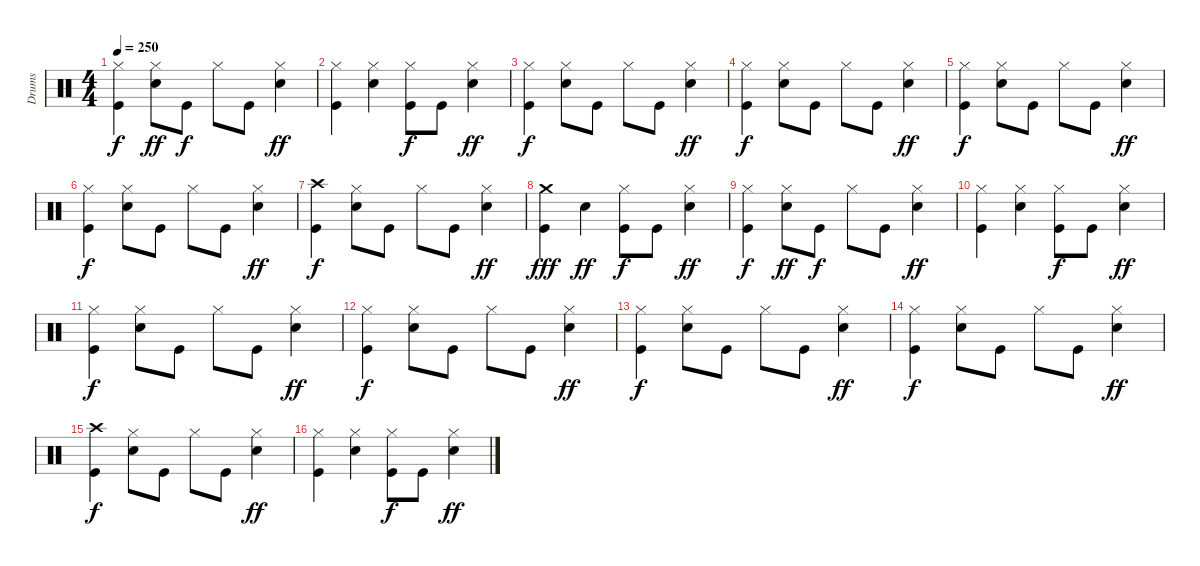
\track ("Drums" "Drums") {instrument percussion}
\staff {score}
\articulation defaults
\ts (4 4)
\tempo 250
\clef neutral
\ks c
("Hi-Hat (closed)" "Kick (hit)").4{dy f} ("Hi-Hat (closed)" "Snare (hit) 2").8{dy ff} "Kick (hit)".8{dy f} "Hi-Hat (closed)".8 "Kick (hit)".8 ("Hi-Hat (closed)" "Snare (hit) 2").4{dy ff} |
("Hi-Hat (closed)" "Kick (hit)").4 ("Hi-Hat (closed)" "Snare (hit) 2").4 ("Hi-Hat (closed)" "Kick (hit)").8{dy f} "Kick (hit)".8 ("Hi-Hat (closed)" "Snare (hit) 2").4{dy ff} |
("Hi-Hat (closed)" "Kick (hit)").4{dy f} ("Hi-Hat (closed)" "Snare (hit) 2").8 "Kick (hit)".8 "Hi-Hat (closed)".8 "Kick (hit)".8 ("Hi-Hat (closed)" "Snare (hit) 2").4{dy ff} |
("Hi-Hat (closed)" "Kick (hit)").4{dy f} ("Hi-Hat (closed)" "Snare (hit) 2").8 "Kick (hit)".8 "Hi-Hat (closed)".8 "Kick (hit)".8 ("Hi-Hat (closed)" "Snare (hit) 2").4{dy ff} |
("Hi-Hat (closed)" "Kick (hit)").4{dy f} ("Hi-Hat (closed)" "Snare (hit) 2").8 "Kick (hit)".8 "Hi-Hat (closed)".8 "Kick (hit)".8 ("Hi-Hat (closed)" "Snare (hit) 2").4{dy ff} |
("Hi-Hat (closed)" "Kick (hit)").4{dy f} ("Hi-Hat (closed)" "Snare (hit) 2").8 "Kick (hit)".8 "Hi-Hat (closed)".8 "Kick (hit)".8 ("Hi-Hat (closed)" "Snare (hit) 2").4{dy ff} |
("Crash high (hit)" "Kick (hit)").4{dy f} ("Hi-Hat (closed)" "Snare (hit) 2").8 "Kick (hit)".8 "Hi-Hat (closed)".8 "Kick (hit)".8 ("Hi-Hat (closed)" "Snare (hit) 2").4{dy ff} |
("Crash medium (hit)" "Kick (hit)").4{dy fff} "Snare (hit) 2".4{dy ff} ("Hi-Hat (closed)" "Kick (hit)").8{dy f} "Kick (hit)".8 ("Hi-Hat (closed)" "Snare (hit) 2").4{dy ff} |
("Hi-Hat (closed)" "Kick (hit)").4{dy f} ("Hi-Hat (closed)" "Snare (hit) 2").8{dy ff} "Kick (hit)".8{dy f} "Hi-Hat (closed)".8 "Kick (hit)".8 ("Hi-Hat (closed)" "Snare (hit) 2").4{dy ff} |
("Hi-Hat (closed)" "Kick (hit)").4 ("Hi-Hat (closed)" "Snare (hit) 2").4 ("Hi-Hat (closed)" "Kick (hit)").8{dy f} "Kick (hit)".8 ("Hi-Hat (closed)" "Snare (hit) 2").4{dy ff} |
("Hi-Hat (closed)" "Kick (hit)").4{dy f} ("Hi-Hat (closed)" "Snare (hit) 2").8 "Kick (hit)".8 "Hi-Hat (closed)".8 "Kick (hit)".8 ("Hi-Hat (closed)" "Snare (hit) 2").4{dy ff} |
("Hi-Hat (closed)" "Kick (hit)").4{dy f} ("Hi-Hat (closed)" "Snare (hit) 2").8 "Kick (hit)".8 "Hi-Hat (closed)".8 "Kick (hit)".8 ("Hi-Hat (closed)" "Snare (hit) 2").4{dy ff} |
("Hi-Hat (closed)" "Kick (hit)").4{dy f} ("Hi-Hat (closed)" "Snare (hit) 2").8 "Kick (hit)".8 "Hi-Hat (closed)".8 "Kick (hit)".8 ("Hi-Hat (closed)" "Snare (hit) 2").4{dy ff} |
("Hi-Hat (closed)" "Kick (hit)").4{dy f} ("Hi-Hat (closed)" "Snare (hit) 2").8 "Kick (hit)".8 "Hi-Hat (closed)".8 "Kick (hit)".8 ("Hi-Hat (closed)" "Snare (hit) 2").4{dy ff} |
("Crash high (hit)" "Kick (hit)").4{dy f} ("Hi-Hat (closed)" "Snare (hit) 2").8 "Kick (hit)".8 "Hi-Hat (closed)".8 "Kick (hit)".8 ("Hi-Hat (closed)" "Snare (hit) 2").4{dy ff} |
("Hi-Hat (closed)" "Kick (hit)").4 ("Hi-Hat (closed)" "Snare (hit) 2").4 ("Hi-Hat (closed)" "Kick (hit)").8{dy f} "Kick (hit)".8 ("Hi-Hat (closed)" "Snare (hit) 2").4{dy ff}
